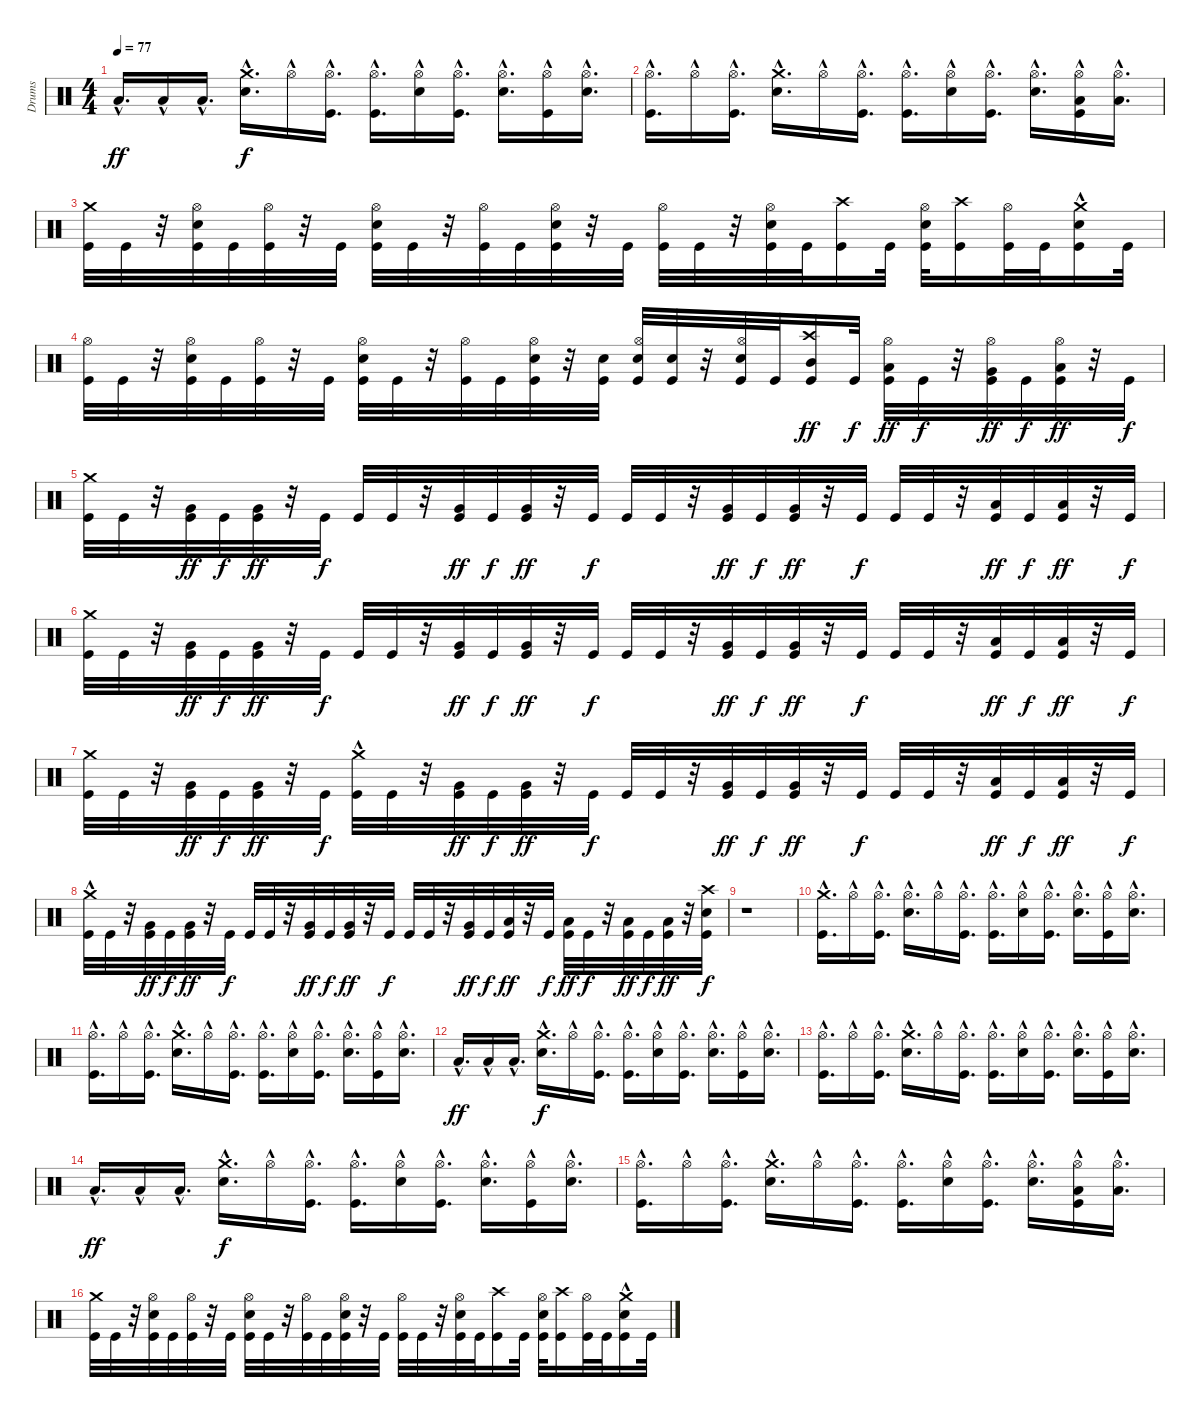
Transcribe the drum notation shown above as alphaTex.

\track ("Drums" "Drums") {instrument percussion}
\staff {score}
\articulation defaults
\ts (4 4)
\tempo 77
\clef neutral
\ks c "Low Floor Tom (hit)"{hac}.16{d dy ff} "Low Floor Tom (hit)"{hac}.16 "Low Floor Tom (hit)"{hac}.16{d}
("Crash medium (hit)" "Snare (hit) 2"{hac}).16{d dy f} "Hi-Hat (open)"{hac}.16 ("Hi-Hat (open)"{hac} "Kick (hit)"{hac}).16{d} ("Hi-Hat (open)"{hac} "Kick (hit)"{hac}).16{d} ("Hi-Hat (open)"{hac} "Snare (hit) 2"{hac}).16 ("Hi-Hat (open)"{hac} "Kick (hit)"{hac}).16{d} ("Hi-Hat (open)"{hac} "Snare (hit) 2"{hac}).16{d} ("Hi-Hat (open)"{hac} "Kick (hit)"{hac}).16 ("Hi-Hat (open)"{hac} "Snare (hit) 2"{hac}).16{d} |
("Hi-Hat (open)"{hac} "Kick (hit)"{hac}).16{d} "Hi-Hat (open)"{hac}.16 ("Hi-Hat (open)"{hac} "Kick (hit)"{hac}).16{d} ("Crash medium (hit)"{hac} "Snare (hit) 2"{hac}).16{d} "Hi-Hat (open)"{hac}.16 ("Hi-Hat (open)"{hac} "Kick (hit)"{hac}).16{d} ("Hi-Hat (open)"{hac} "Kick (hit)"{hac}).16{d} ("Hi-Hat (open)"{hac} "Snare (hit) 2"{hac}).16 ("Hi-Hat (open)"{hac} "Kick (hit)"{hac}).16{d} ("Hi-Hat (open)"{hac} "Snare (hit) 2"{hac}).16{d} ("Hi-Hat (open)"{hac} "Low Tom (hit)"{hac} "Kick (hit)"{hac}).16 ("Hi-Hat (open)"{hac} "Low Floor Tom (hit)"{hac}).16{d} |
("Crash medium (hit)" "Kick (hit)").32 "Kick (hit)".32 r.32 ("Hi-Hat (open)" "Snare (hit) 2" "Kick (hit)").32 "Kick (hit)".32 ("Hi-Hat (open)" "Kick (hit)").32 r.32 "Kick (hit)".32 ("Hi-Hat (open)" "Snare (hit) 2" "Kick (hit)").32 "Kick (hit)".32 r.32 ("Hi-Hat (open)" "Kick (hit)").32 "Kick (hit)".32 ("Hi-Hat (open)" "Snare (hit) 2" "Kick (hit)").32 r.32 "Kick (hit)".32 ("Hi-Hat (open)" "Kick (hit)").32 "Kick (hit)".32 r.32 ("Hi-Hat (open)" "Snare (hit) 2" "Kick (hit)").32 "Kick (hit)".32 ("Crash high (hit)" "Kick (hit)").16 "Kick (hit)".32 ("Hi-Hat (open)" "Snare (hit) 2" "Kick (hit)").32 ("Crash high (hit)" "Kick (hit)").16 ("Hi-Hat (open)" "Kick (hit)").32 "Kick (hit)".32 ("Crash medium (hit)"{hac} "Snare (hit) 2" "Kick (hit)").16 "Kick (hit)".32 |
("Hi-Hat (open)" "Kick (hit)").32 "Kick (hit)".32 r.32 ("Hi-Hat (open)" "Snare (hit) 2" "Kick (hit)").32 "Kick (hit)".32 ("Hi-Hat (open)" "Kick (hit)").32 r.32 "Kick (hit)".32 ("Hi-Hat (open)" "Snare (hit) 2" "Kick (hit)").32 "Kick (hit)".32 r.32 ("Hi-Hat (open)" "Kick (hit)").32 "Kick (hit)".32 ("Hi-Hat (open)" "Snare (hit) 2" "Kick (hit)").32 r.32 ("Snare (hit) 2" "Kick (hit)").32 ("Hi-Hat (open)" "Snare (hit) 2" "Kick (hit)").32 ("Snare (hit) 2" "Kick (hit)").32 r.32 ("Hi-Hat (open)" "Snare (hit) 2" "Kick (hit)").32 "Kick (hit)".32 ("Crash high (hit)" "Mid Tom (hit)" "Kick (hit)").16{dy ff} "Kick (hit)".32{dy f} ("Hi-Hat (open)" "Low Tom (hit)" "Kick (hit)").32{dy ff} "Kick (hit)".32{dy f} r.32 ("Hi-Hat (open)" "Very Low Tom (hit)" "Kick (hit)").32{dy ff} "Kick (hit)".32{dy f} ("Hi-Hat (open)" "Low Floor Tom (hit)" "Kick (hit)").32{dy ff} r.32 "Kick (hit)".32{dy f} |
("Crash medium (hit)" "Kick (hit)").32 "Kick (hit)".32 r.32 ("Very Low Tom (hit)" "Kick (hit)").32{dy ff} "Kick (hit)".32{dy f} ("Very Low Tom (hit)" "Kick (hit)").32{dy ff} r.32 "Kick (hit)".32{dy f} "Kick (hit)".32 "Kick (hit)".32 r.32 ("Very Low Tom (hit)" "Kick (hit)").32{dy ff} "Kick (hit)".32{dy f} ("Very Low Tom (hit)" "Kick (hit)").32{dy ff} r.32 "Kick (hit)".32{dy f} "Kick (hit)".32 "Kick (hit)".32 r.32 ("Very Low Tom (hit)" "Kick (hit)").32{dy ff} "Kick (hit)".32{dy f} ("Very Low Tom (hit)" "Kick (hit)").32{dy ff} r.32 "Kick (hit)".32{dy f} "Kick (hit)".32 "Kick (hit)".32 r.32 ("Low Floor Tom (hit)" "Kick (hit)").32{dy ff} "Kick (hit)".32{dy f} ("Low Floor Tom (hit)" "Kick (hit)").32{dy ff} r.32 "Kick (hit)".32{dy f} |
("Crash medium (hit)" "Kick (hit)").32 "Kick (hit)".32 r.32 ("Very Low Tom (hit)" "Kick (hit)").32{dy ff} "Kick (hit)".32{dy f} ("Very Low Tom (hit)" "Kick (hit)").32{dy ff} r.32 "Kick (hit)".32{dy f} "Kick (hit)".32 "Kick (hit)".32 r.32 ("Very Low Tom (hit)" "Kick (hit)").32{dy ff} "Kick (hit)".32{dy f} ("Very Low Tom (hit)" "Kick (hit)").32{dy ff} r.32 "Kick (hit)".32{dy f} "Kick (hit)".32 "Kick (hit)".32 r.32 ("Very Low Tom (hit)" "Kick (hit)").32{dy ff} "Kick (hit)".32{dy f} ("Very Low Tom (hit)" "Kick (hit)").32{dy ff} r.32 "Kick (hit)".32{dy f} "Kick (hit)".32 "Kick (hit)".32 r.32 ("Low Floor Tom (hit)" "Kick (hit)").32{dy ff} "Kick (hit)".32{dy f} ("Low Floor Tom (hit)" "Kick (hit)").32{dy ff} r.32 "Kick (hit)".32{dy f} |
("Crash medium (hit)" "Kick (hit)").32 "Kick (hit)".32 r.32 ("Very Low Tom (hit)" "Kick (hit)").32{dy ff} "Kick (hit)".32{dy f} ("Very Low Tom (hit)" "Kick (hit)").32{dy ff} r.32 "Kick (hit)".32{dy f} ("Crash medium (hit)"{hac} "Kick (hit)").32 "Kick (hit)".32 r.32 ("Very Low Tom (hit)" "Kick (hit)").32{dy ff} "Kick (hit)".32{dy f} ("Very Low Tom (hit)" "Kick (hit)").32{dy ff} r.32 "Kick (hit)".32{dy f} "Kick (hit)".32 "Kick (hit)".32 r.32 ("Very Low Tom (hit)" "Kick (hit)").32{dy ff} "Kick (hit)".32{dy f} ("Very Low Tom (hit)" "Kick (hit)").32{dy ff} r.32 "Kick (hit)".32{dy f} "Kick (hit)".32 "Kick (hit)".32 r.32 ("Low Floor Tom (hit)" "Kick (hit)").32{dy ff} "Kick (hit)".32{dy f} ("Low Floor Tom (hit)" "Kick (hit)").32{dy ff} r.32 "Kick (hit)".32{dy f} |
("Crash medium (hit)"{hac} "Kick (hit)").32 "Kick (hit)".32 r.32 ("Very Low Tom (hit)" "Kick (hit)").32{dy ff} "Kick (hit)".32{dy f} ("Very Low Tom (hit)" "Kick (hit)").32{dy ff} r.32 "Kick (hit)".32{dy f} "Kick (hit)".32 "Kick (hit)".32 r.32 ("Very Low Tom (hit)" "Kick (hit)").32{dy ff} "Kick (hit)".32{dy f} ("Very Low Tom (hit)" "Kick (hit)").32{dy ff} r.32 "Kick (hit)".32{dy f} "Kick (hit)".32 "Kick (hit)".32 r.32 ("Very Low Tom (hit)" "Kick (hit)").32{dy ff} "Kick (hit)".32{dy f} ("Low Floor Tom (hit)" "Kick (hit)").32{dy ff} r.32 "Kick (hit)".32{dy f} ("Low Floor Tom (hit)" "Kick (hit)").32{dy ff} "Kick (hit)".32{dy f} r.32 ("Low Floor Tom (hit)" "Kick (hit)").32{dy ff} "Kick (hit)".32{dy f} ("Low Floor Tom (hit)" "Kick (hit)").32{dy ff} r.32 ("Crash high (hit)" "Snare (hit) 2" "Kick (hit)").32{dy f} |
r.1 |
("Crash medium (hit)"{hac} "Kick (hit)"{hac}).16{d} "Hi-Hat (open)"{hac}.16 ("Hi-Hat (open)"{hac} "Kick (hit)"{hac}).16{d} ("Hi-Hat (open)"{hac} "Snare (hit) 2"{hac}).16{d} "Hi-Hat (open)"{hac}.16 ("Hi-Hat (open)"{hac} "Kick (hit)"{hac}).16{d} ("Hi-Hat (open)"{hac} "Kick (hit)"{hac}).16{d} ("Hi-Hat (open)"{hac} "Snare (hit) 2"{hac}).16 ("Hi-Hat (open)"{hac} "Kick (hit)"{hac}).16{d} ("Hi-Hat (open)"{hac} "Snare (hit) 2"{hac}).16{d} ("Hi-Hat (open)"{hac} "Kick (hit)"{hac}).16 ("Hi-Hat (open)"{hac} "Snare (hit) 2"{hac}).16{d} |
("Hi-Hat (open)"{hac} "Kick (hit)"{hac}).16{d} "Hi-Hat (open)"{hac}.16 ("Hi-Hat (open)"{hac} "Kick (hit)"{hac}).16{d} ("Crash medium (hit)" "Snare (hit) 2"{hac}).16{d} "Hi-Hat (open)"{hac}.16 ("Hi-Hat (open)"{hac} "Kick (hit)"{hac}).16{d} ("Hi-Hat (open)"{hac} "Kick (hit)"{hac}).16{d} ("Hi-Hat (open)"{hac} "Snare (hit) 2"{hac}).16 ("Hi-Hat (open)"{hac} "Kick (hit)"{hac}).16{d} ("Hi-Hat (open)"{hac} "Snare (hit) 2"{hac}).16{d} ("Hi-Hat (open)"{hac} "Kick (hit)"{hac}).16 ("Hi-Hat (open)"{hac} "Snare (hit) 2"{hac}).16{d} |
"Low Floor Tom (hit)"{hac}.16{d dy ff} "Low Floor Tom (hit)"{hac}.16 "Low Floor Tom (hit)"{hac}.16{d} ("Crash medium (hit)" "Snare (hit) 2"{hac}).16{d dy f} "Hi-Hat (open)"{hac}.16 ("Hi-Hat (open)"{hac} "Kick (hit)"{hac}).16{d} ("Hi-Hat (open)"{hac} "Kick (hit)"{hac}).16{d} ("Hi-Hat (open)"{hac} "Snare (hit) 2"{hac}).16 ("Hi-Hat (open)"{hac} "Kick (hit)"{hac}).16{d} ("Hi-Hat (open)"{hac} "Snare (hit) 2"{hac}).16{d} ("Hi-Hat (open)"{hac} "Kick (hit)"{hac}).16 ("Hi-Hat (open)"{hac} "Snare (hit) 2"{hac}).16{d} |
("Hi-Hat (open)"{hac} "Kick (hit)"{hac}).16{d} "Hi-Hat (open)"{hac}.16 ("Hi-Hat (open)"{hac} "Kick (hit)"{hac}).16{d} ("Crash medium (hit)" "Snare (hit) 2"{hac}).16{d} "Hi-Hat (open)"{hac}.16 ("Hi-Hat (open)"{hac} "Kick (hit)"{hac}).16{d} ("Hi-Hat (open)"{hac} "Kick (hit)"{hac}).16{d} ("Hi-Hat (open)"{hac} "Snare (hit) 2"{hac}).16 ("Hi-Hat (open)"{hac} "Kick (hit)"{hac}).16{d} ("Hi-Hat (open)"{hac} "Snare (hit) 2"{hac}).16{d} ("Hi-Hat (open)"{hac} "Kick (hit)"{hac}).16 ("Hi-Hat (open)"{hac} "Snare (hit) 2"{hac}).16{d} |
"Low Floor Tom (hit)"{hac}.16{d dy ff volume 13} "Low Floor Tom (hit)"{hac}.16{volume 13} "Low Floor Tom (hit)"{hac}.16{d volume 12} ("Crash medium (hit)" "Snare (hit) 2"{hac}).16{d dy f volume 12} "Hi-Hat (open)"{hac}.16{volume 12} ("Hi-Hat (open)"{hac} "Kick (hit)"{hac}).16{d volume 12} ("Hi-Hat (open)"{hac} "Kick (hit)"{hac}).16{d volume 12} ("Hi-Hat (open)"{hac} "Snare (hit) 2"{hac}).16{volume 12} ("Hi-Hat (open)"{hac} "Kick (hit)"{hac}).16{d volume 11} ("Hi-Hat (open)"{hac} "Snare (hit) 2"{hac}).16{d volume 11} ("Hi-Hat (open)"{hac} "Kick (hit)"{hac}).16{volume 11} ("Hi-Hat (open)"{hac} "Snare (hit) 2"{hac}).16{d volume 11} |
("Hi-Hat (open)"{hac} "Kick (hit)"{hac}).16{d volume 10} "Hi-Hat (open)"{hac}.16{volume 10} ("Hi-Hat (open)"{hac} "Kick (hit)"{hac}).16{d volume 10} ("Crash medium (hit)"{hac} "Snare (hit) 2"{hac}).16{d volume 10} "Hi-Hat (open)"{hac}.16{volume 10} ("Hi-Hat (open)"{hac} "Kick (hit)"{hac}).16{d volume 10} ("Hi-Hat (open)"{hac} "Kick (hit)"{hac}).16{d volume 9} ("Hi-Hat (open)"{hac} "Snare (hit) 2"{hac}).16{volume 9} ("Hi-Hat (open)"{hac} "Kick (hit)"{hac}).16{d volume 9} ("Hi-Hat (open)"{hac} "Snare (hit) 2"{hac}).16{d volume 9} ("Hi-Hat (open)"{hac} "Low Tom (hit)"{hac} "Kick (hit)"{hac}).16{volume 8} ("Hi-Hat (open)"{hac} "Low Floor Tom (hit)"{hac}).16{d volume 8} |
("Crash medium (hit)" "Kick (hit)").32{volume 8} "Kick (hit)".32 r.32 ("Hi-Hat (open)" "Snare (hit) 2" "Kick (hit)").32{volume 8} "Kick (hit)".32{volume 8} ("Hi-Hat (open)" "Kick (hit)").32 r.32 "Kick (hit)".32{volume 7} ("Hi-Hat (open)" "Snare (hit) 2" "Kick (hit)").32{volume 7} "Kick (hit)".32 r.32 ("Hi-Hat (open)" "Kick (hit)").32{volume 7} "Kick (hit)".32{volume 7} ("Hi-Hat (open)" "Snare (hit) 2" "Kick (hit)").32 r.32 "Kick (hit)".32{volume 6} ("Hi-Hat (open)" "Kick (hit)").32{volume 6} "Kick (hit)".32 r.32 ("Hi-Hat (open)" "Snare (hit) 2" "Kick (hit)").32{volume 6} "Kick (hit)".32{volume 6} ("Crash high (hit)" "Kick (hit)").16 "Kick (hit)".32{volume 6} ("Hi-Hat (open)" "Snare (hit) 2" "Kick (hit)").32{volume 6} ("Crash high (hit)" "Kick (hit)").16 ("Hi-Hat (open)" "Kick (hit)").32{volume 6} "Kick (hit)".32{volume 5} ("Crash medium (hit)"{hac} "Snare (hit) 2" "Kick (hit)").16 "Kick (hit)".32{volume 5}
